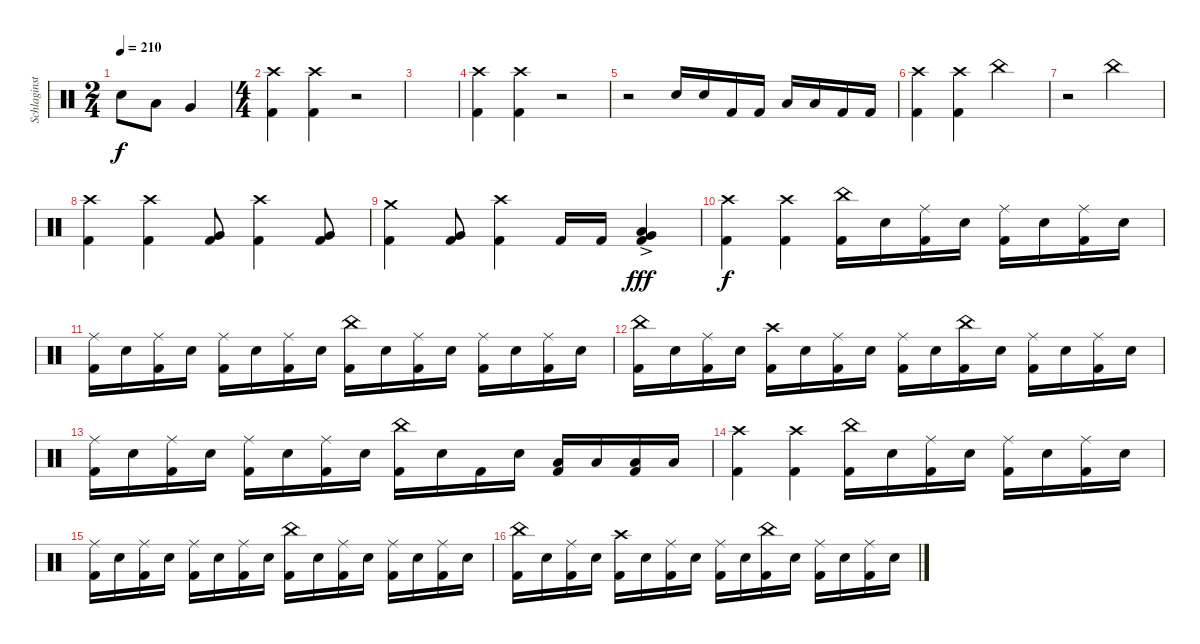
\track ("Schlaginstrumente - Auswahl" "Schlaginst") {instrument percussion}
\staff {score}
\articulation defaults
\ts (2 4)
\tempo 210
\clef neutral
\ks c "Snare (hit) 2".8{dy f} "Low Tom (hit)".8 "Very Low Tom (hit)".4
|
\ts (4 4)
("Crash high (hit)" "Kick (hit) 2").4 ("Crash high (hit)" "Kick (hit) 2").4 r.2 |
|
("Crash high (hit)" "Kick (hit) 2").4 ("Crash high (hit)" "Kick (hit) 2").4 r.2 |
r.2 "Snare (hit) 2".16 "Snare (hit) 2".16 "Kick (hit) 2".16 "Kick (hit) 2".16 "Low Tom (hit)".16 "Low Tom (hit)".16 "Kick (hit) 2".16 "Kick (hit) 2".16 |
("Crash high (hit)" "Kick (hit) 2").4 ("Crash high (hit)" "Kick (hit) 2").4 "China (hit)".2 |
r.2 "China (hit)".2 |
("Crash high (hit)" "Kick (hit) 2").4 ("Crash high (hit)" "Kick (hit) 2").4 ("Very Low Tom (hit)" "Kick (hit) 2").8 ("Crash high (hit)" "Kick (hit) 2").4 ("Very Low Tom (hit)" "Kick (hit) 2").8 |
("Crash medium (hit)" "Kick (hit) 2").4 ("Very Low Tom (hit)" "Kick (hit) 2").8 ("Crash high (hit)" "Kick (hit) 2").4 "Kick (hit) 2".16 "Kick (hit) 2".16 ("Low Floor Tom (hit)" "Very Low Tom (hit)" "Kick (hit) 2"{ac}).4{dy fff} |
("Crash high (hit)" "Kick (hit) 2").4{dy f} ("Crash high (hit)" "Kick (hit) 2").4 ("China (hit)" "Kick (hit) 2").16 "Snare (hit) 2".16 ("Ride (middle)" "Kick (hit) 2").16 "Snare (hit) 2".16 ("Ride (middle)" "Kick (hit) 2").16 "Snare (hit) 2".16 ("Ride (middle)" "Kick (hit) 2").16 "Snare (hit) 2".16 |
("Ride (middle)" "Kick (hit) 2").16 "Snare (hit) 2".16 ("Ride (middle)" "Kick (hit) 2").16 "Snare (hit) 2".16 ("Ride (middle)" "Kick (hit) 2").16 "Snare (hit) 2".16 ("Ride (middle)" "Kick (hit) 2").16 "Snare (hit) 2".16 ("China (hit)" "Kick (hit) 2").16 "Snare (hit) 2".16 ("Ride (middle)" "Kick (hit) 2").16 "Snare (hit) 2".16 ("Ride (middle)" "Kick (hit) 2").16 "Snare (hit) 2".16 ("Ride (middle)" "Kick (hit) 2").16 "Snare (hit) 2".16 |
("China (hit)" "Kick (hit) 2").16 "Snare (hit) 2".16 ("Ride (middle)" "Kick (hit) 2").16 "Snare (hit) 2".16 ("Crash high (hit)" "Kick (hit) 2").16 "Snare (hit) 2".16 ("Ride (middle)" "Kick (hit) 2").16 "Snare (hit) 2".16 ("Ride (middle)" "Kick (hit) 2").16 "Snare (hit) 2".16 ("China (hit)" "Kick (hit) 2").16 "Snare (hit) 2".16 ("Ride (middle)" "Kick (hit) 2").16 "Snare (hit) 2".16 ("Ride (middle)" "Kick (hit) 2").16 "Snare (hit) 2".16 |
("Ride (middle)" "Kick (hit) 2").16 "Snare (hit) 2".16 ("Ride (middle)" "Kick (hit) 2").16 "Snare (hit) 2".16 ("Ride (middle)" "Kick (hit) 2").16 "Snare (hit) 2".16 ("Ride (middle)" "Kick (hit) 2").16 "Snare (hit) 2".16 ("China (hit)" "Kick (hit) 2").16 "Snare (hit) 2".16 "Kick (hit) 2".16 "Snare (hit) 2".16 ("Low Floor Tom (hit)" "Kick (hit) 2").16 "Low Floor Tom (hit)".16 ("Low Floor Tom (hit)" "Kick (hit) 2").16 "Low Floor Tom (hit)".16 |
("Crash high (hit)" "Kick (hit) 2").4 ("Crash high (hit)" "Kick (hit) 2").4 ("China (hit)" "Kick (hit) 2").16 "Snare (hit) 2".16 ("Ride (middle)" "Kick (hit) 2").16 "Snare (hit) 2".16 ("Ride (middle)" "Kick (hit) 2").16 "Snare (hit) 2".16 ("Ride (middle)" "Kick (hit) 2").16 "Snare (hit) 2".16 |
("Ride (middle)" "Kick (hit) 2").16 "Snare (hit) 2".16 ("Ride (middle)" "Kick (hit) 2").16 "Snare (hit) 2".16 ("Ride (middle)" "Kick (hit) 2").16 "Snare (hit) 2".16 ("Ride (middle)" "Kick (hit) 2").16 "Snare (hit) 2".16 ("China (hit)" "Kick (hit) 2").16 "Snare (hit) 2".16 ("Ride (middle)" "Kick (hit) 2").16 "Snare (hit) 2".16 ("Ride (middle)" "Kick (hit) 2").16 "Snare (hit) 2".16 ("Ride (middle)" "Kick (hit) 2").16 "Snare (hit) 2".16 |
("China (hit)" "Kick (hit) 2").16 "Snare (hit) 2".16 ("Ride (middle)" "Kick (hit) 2").16 "Snare (hit) 2".16 ("Crash high (hit)" "Kick (hit) 2").16 "Snare (hit) 2".16 ("Ride (middle)" "Kick (hit) 2").16 "Snare (hit) 2".16 ("Ride (middle)" "Kick (hit) 2").16 "Snare (hit) 2".16 ("China (hit)" "Kick (hit) 2").16 "Snare (hit) 2".16 ("Ride (middle)" "Kick (hit) 2").16 "Snare (hit) 2".16 ("Ride (middle)" "Kick (hit) 2").16 "Snare (hit) 2".16
